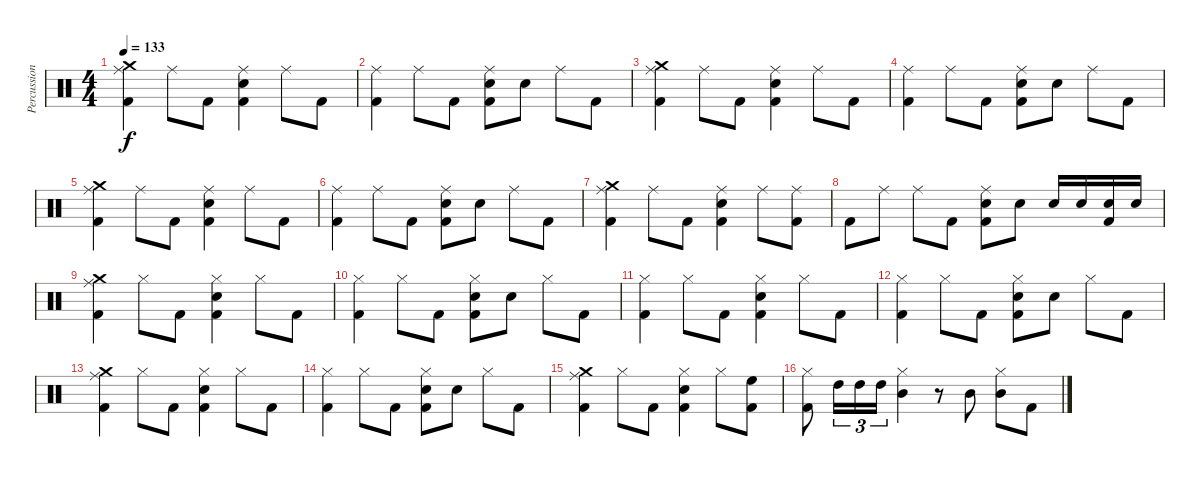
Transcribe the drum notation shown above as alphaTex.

\track ("Percussion" "Percussion") {instrument percussion}
\staff {score}
\articulation defaults
\ts (4 4)
\tempo 133
\clef neutral
\ks c
("Crash medium (hit)" "Ride (middle)" "Kick (hit) 2").4{dy f} "Ride (middle)".8 "Kick (hit) 2".8 ("Ride (middle)" "Snare (hit) 2" "Kick (hit) 2").4 "Ride (middle)".8 "Kick (hit) 2".8 |
("Ride (middle)" "Kick (hit) 2").4 "Ride (middle)".8 "Kick (hit) 2".8 ("Ride (middle)" "Snare (hit) 2" "Kick (hit) 2").8 "Snare (hit) 2".8 "Ride (middle)".8 "Kick (hit) 2".8 |
("Crash medium (hit)" "Ride (middle)" "Kick (hit) 2").4 "Ride (middle)".8 "Kick (hit) 2".8 ("Ride (middle)" "Snare (hit) 2" "Kick (hit) 2").4 "Ride (middle)".8 "Kick (hit) 2".8 |
("Ride (middle)" "Kick (hit) 2").4 "Ride (middle)".8 "Kick (hit) 2".8 ("Ride (middle)" "Snare (hit) 2" "Kick (hit) 2").8 "Snare (hit) 2".8 "Ride (middle)".8 "Kick (hit) 2".8 |
("Crash medium (hit)" "Ride (middle)" "Kick (hit) 2").4 "Ride (middle)".8 "Kick (hit) 2".8 ("Ride (middle)" "Snare (hit) 2" "Kick (hit) 2").4 "Ride (middle)".8 "Kick (hit) 2".8 |
("Ride (middle)" "Kick (hit) 2").4 "Ride (middle)".8 "Kick (hit) 2".8 ("Ride (middle)" "Snare (hit) 2" "Kick (hit) 2").8 "Snare (hit) 2".8 "Ride (middle)".8 "Kick (hit) 2".8 |
("Crash medium (hit)" "Ride (middle)" "Kick (hit) 2").4 "Ride (middle)".8 "Kick (hit) 2".8 ("Ride (middle)" "Snare (hit) 2" "Kick (hit) 2").4 "Ride (middle)".8 ("Ride (middle)" "Kick (hit) 2").8 |
"Kick (hit) 2".8 "Ride (middle)".8 "Ride (middle)".8 "Kick (hit) 2".8 ("Ride (middle)" "Snare (hit) 2" "Kick (hit) 2").8 "Snare (hit) 2".8 "Snare (hit) 2".16 "Snare (hit) 2".16 ("Snare (hit) 2" "Kick (hit) 2").16 "Snare (hit) 2".16 |
("Crash medium (hit)" "Ride (middle)" "Kick (hit) 2").4 "Hi-Hat (closed)".8 "Kick (hit) 2".8 ("Hi-Hat (closed)" "Snare (hit) 2" "Kick (hit) 2").4 "Hi-Hat (closed)".8 "Kick (hit) 2".8 |
("Hi-Hat (closed)" "Kick (hit) 2").4 "Hi-Hat (closed)".8 "Kick (hit) 2".8 ("Hi-Hat (closed)" "Snare (hit) 2" "Kick (hit) 2").8 "Snare (hit) 2".8 "Hi-Hat (closed)".8 "Kick (hit) 2".8 |
("Hi-Hat (closed)" "Kick (hit) 2").4 "Hi-Hat (closed)".8 "Kick (hit) 2".8 ("Hi-Hat (closed)" "Snare (hit) 2" "Kick (hit) 2").4 "Hi-Hat (closed)".8 "Kick (hit) 2".8 |
("Hi-Hat (closed)" "Kick (hit) 2").4 "Hi-Hat (closed)".8 "Kick (hit) 2".8 ("Hi-Hat (closed)" "Snare (hit) 2" "Kick (hit) 2").8 "Snare (hit) 2".8 "Hi-Hat (closed)".8 "Kick (hit) 2".8 |
("Crash medium (hit)" "Ride (middle)" "Kick (hit) 2").4 "Hi-Hat (closed)".8 "Kick (hit) 2".8 ("Hi-Hat (closed)" "Snare (hit) 2" "Kick (hit) 2").4 "Hi-Hat (closed)".8 "Kick (hit) 2".8 |
("Hi-Hat (closed)" "Kick (hit) 2").4 "Hi-Hat (closed)".8 "Kick (hit) 2".8 ("Hi-Hat (closed)" "Snare (hit) 2" "Kick (hit) 2").8 "Snare (hit) 2".8 "Hi-Hat (closed)".8 "Kick (hit) 2".8 |
("Crash medium (hit)" "Ride (middle)" "Kick (hit) 2").4 "Hi-Hat (closed)".8 "Kick (hit) 2".8 ("Hi-Hat (closed)" "Snare (hit) 2" "Kick (hit) 2").4 "Hi-Hat (closed)".8 ("High Floor Tom (hit)" "Kick (hit) 2").8 |
("Hi-Hat (closed)" "Kick (hit) 2").8 "High Tom (hit)".16{tu (3 2)} "High Tom (hit)".16{tu (3 2)} "High Tom (hit)".16{tu (3 2)} ("Hi-Hat (closed)" "Mid Tom (hit)").4 r.8 "Mid Tom (hit)".8 ("Hi-Hat (closed)" "Mid Tom (hit)").8 "Kick (hit) 2".8
